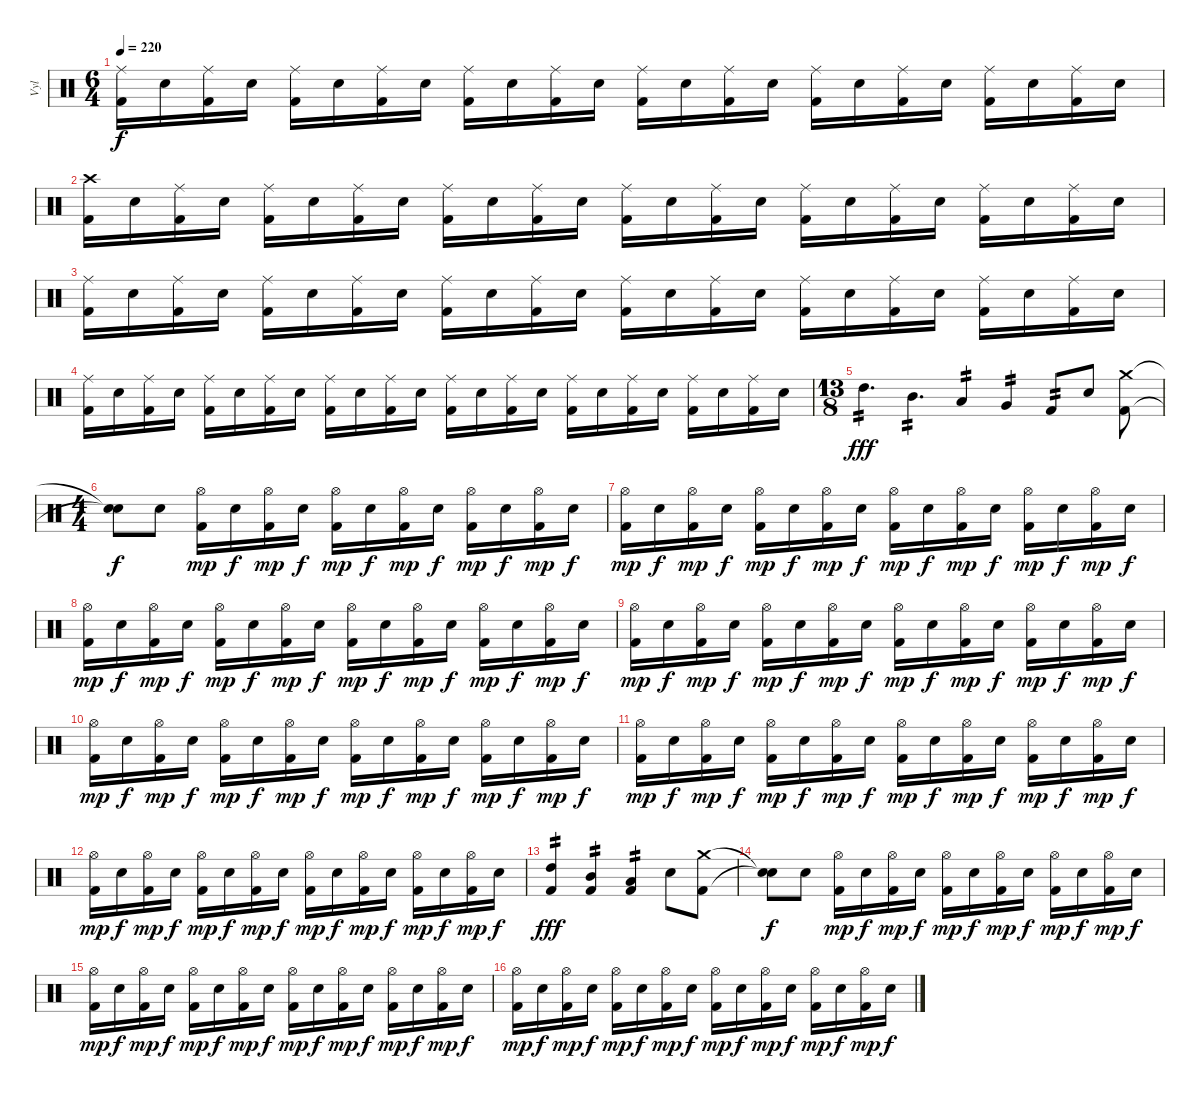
\track ("Vyl" "Vyl") {instrument percussion}
\staff {score}
\articulation defaults
\ts (6 4)
\tempo 220
\clef neutral
\ks c
("Ride (middle)" "Kick (hit) 2").16{dy f} "Snare (hit) 2".16 ("Ride (middle)" "Kick (hit) 2").16 "Snare (hit) 2".16 ("Ride (middle)" "Kick (hit) 2").16 "Snare (hit) 2".16 ("Ride (middle)" "Kick (hit) 2").16 "Snare (hit) 2".16 ("Ride (middle)" "Kick (hit) 2").16 "Snare (hit) 2".16 ("Ride (middle)" "Kick (hit) 2").16 "Snare (hit) 2".16 ("Ride (middle)" "Kick (hit) 2").16 "Snare (hit) 2".16 ("Ride (middle)" "Kick (hit) 2").16 "Snare (hit) 2".16 ("Ride (middle)" "Kick (hit) 2").16 "Snare (hit) 2".16 ("Ride (middle)" "Kick (hit) 2").16 "Snare (hit) 2".16 ("Ride (middle)" "Kick (hit) 2").16 "Snare (hit) 2".16 ("Ride (middle)" "Kick (hit) 2").16 "Snare (hit) 2".16 |
("Crash high (hit)" "Kick (hit) 2").16 "Snare (hit) 2".16 ("Ride (middle)" "Kick (hit) 2").16 "Snare (hit) 2".16 ("Ride (middle)" "Kick (hit) 2").16 "Snare (hit) 2".16 ("Ride (middle)" "Kick (hit) 2").16 "Snare (hit) 2".16 ("Ride (middle)" "Kick (hit) 2").16 "Snare (hit) 2".16 ("Ride (middle)" "Kick (hit) 2").16 "Snare (hit) 2".16 ("Ride (middle)" "Kick (hit) 2").16 "Snare (hit) 2".16 ("Ride (middle)" "Kick (hit) 2").16 "Snare (hit) 2".16 ("Ride (middle)" "Kick (hit) 2").16 "Snare (hit) 2".16 ("Ride (middle)" "Kick (hit) 2").16 "Snare (hit) 2".16 ("Ride (middle)" "Kick (hit) 2").16 "Snare (hit) 2".16 ("Ride (middle)" "Kick (hit) 2").16 "Snare (hit) 2".16 |
("Ride (middle)" "Kick (hit) 2").16 "Snare (hit) 2".16 ("Ride (middle)" "Kick (hit) 2").16 "Snare (hit) 2".16 ("Ride (middle)" "Kick (hit) 2").16 "Snare (hit) 2".16 ("Ride (middle)" "Kick (hit) 2").16 "Snare (hit) 2".16 ("Ride (middle)" "Kick (hit) 2").16 "Snare (hit) 2".16 ("Ride (middle)" "Kick (hit) 2").16 "Snare (hit) 2".16 ("Ride (middle)" "Kick (hit) 2").16 "Snare (hit) 2".16 ("Ride (middle)" "Kick (hit) 2").16 "Snare (hit) 2".16 ("Ride (middle)" "Kick (hit) 2").16 "Snare (hit) 2".16 ("Ride (middle)" "Kick (hit) 2").16 "Snare (hit) 2".16 ("Ride (middle)" "Kick (hit) 2").16 "Snare (hit) 2".16 ("Ride (middle)" "Kick (hit) 2").16 "Snare (hit) 2".16 |
("Ride (middle)" "Kick (hit) 2").16 "Snare (hit) 2".16 ("Ride (middle)" "Kick (hit) 2").16 "Snare (hit) 2".16 ("Ride (middle)" "Kick (hit) 2").16 "Snare (hit) 2".16 ("Ride (middle)" "Kick (hit) 2").16 "Snare (hit) 2".16 ("Ride (middle)" "Kick (hit) 2").16 "Snare (hit) 2".16 ("Ride (middle)" "Kick (hit) 2").16 "Snare (hit) 2".16 ("Ride (middle)" "Kick (hit) 2").16 "Snare (hit) 2".16 ("Ride (middle)" "Kick (hit) 2").16 "Snare (hit) 2".16 ("Ride (middle)" "Kick (hit) 2").16 "Snare (hit) 2".16 ("Ride (middle)" "Kick (hit) 2").16 "Snare (hit) 2".16 ("Ride (middle)" "Kick (hit) 2").16 "Snare (hit) 2".16 ("Ride (middle)" "Kick (hit) 2").16 "Snare (hit) 2".16 |
\ts (13 8)
"High Tom (hit)".4{d tp 2 dy fff} "Mid Tom (hit)".4{d tp 2} "Low Tom (hit)".4{tp 2} "Very Low Tom (hit)".4{tp 2} "Kick (hit) 2".8{tp 2} "Snare (hit) 2".8 ("Crash medium (hit)" "Kick (hit) 2").8 |
\ts (4 4)
("Snare (hit)"{t} "Snare (hit)"{t}).8{dy f} "Snare (hit) 2".8 ("Hi-Hat (open)" "Kick (hit) 2").16{dy mp} "Snare (hit) 2".16{dy f} ("Hi-Hat (open)" "Kick (hit) 2").16{dy mp} "Snare (hit) 2".16{dy f} ("Hi-Hat (open)" "Kick (hit) 2").16{dy mp} "Snare (hit) 2".16{dy f} ("Hi-Hat (open)" "Kick (hit) 2").16{dy mp} "Snare (hit) 2".16{dy f} ("Hi-Hat (open)" "Kick (hit) 2").16{dy mp} "Snare (hit) 2".16{dy f} ("Hi-Hat (open)" "Kick (hit) 2").16{dy mp} "Snare (hit) 2".16{dy f} |
("Hi-Hat (open)" "Kick (hit) 2").16{dy mp} "Snare (hit) 2".16{dy f} ("Hi-Hat (open)" "Kick (hit) 2").16{dy mp} "Snare (hit) 2".16{dy f} ("Hi-Hat (open)" "Kick (hit) 2").16{dy mp} "Snare (hit) 2".16{dy f} ("Hi-Hat (open)" "Kick (hit) 2").16{dy mp} "Snare (hit) 2".16{dy f} ("Hi-Hat (open)" "Kick (hit) 2").16{dy mp} "Snare (hit) 2".16{dy f} ("Hi-Hat (open)" "Kick (hit) 2").16{dy mp} "Snare (hit) 2".16{dy f} ("Hi-Hat (open)" "Kick (hit) 2").16{dy mp} "Snare (hit) 2".16{dy f} ("Hi-Hat (open)" "Kick (hit) 2").16{dy mp} "Snare (hit) 2".16{dy f} |
("Hi-Hat (open)" "Kick (hit) 2").16{dy mp} "Snare (hit) 2".16{dy f} ("Hi-Hat (open)" "Kick (hit) 2").16{dy mp} "Snare (hit) 2".16{dy f} ("Hi-Hat (open)" "Kick (hit) 2").16{dy mp} "Snare (hit) 2".16{dy f} ("Hi-Hat (open)" "Kick (hit) 2").16{dy mp} "Snare (hit) 2".16{dy f} ("Hi-Hat (open)" "Kick (hit) 2").16{dy mp} "Snare (hit) 2".16{dy f} ("Hi-Hat (open)" "Kick (hit) 2").16{dy mp} "Snare (hit) 2".16{dy f} ("Hi-Hat (open)" "Kick (hit) 2").16{dy mp} "Snare (hit) 2".16{dy f} ("Hi-Hat (open)" "Kick (hit) 2").16{dy mp} "Snare (hit) 2".16{dy f} |
("Hi-Hat (open)" "Kick (hit) 2").16{dy mp} "Snare (hit) 2".16{dy f} ("Hi-Hat (open)" "Kick (hit) 2").16{dy mp} "Snare (hit) 2".16{dy f} ("Hi-Hat (open)" "Kick (hit) 2").16{dy mp} "Snare (hit) 2".16{dy f} ("Hi-Hat (open)" "Kick (hit) 2").16{dy mp} "Snare (hit) 2".16{dy f} ("Hi-Hat (open)" "Kick (hit) 2").16{dy mp} "Snare (hit) 2".16{dy f} ("Hi-Hat (open)" "Kick (hit) 2").16{dy mp} "Snare (hit) 2".16{dy f} ("Hi-Hat (open)" "Kick (hit) 2").16{dy mp} "Snare (hit) 2".16{dy f} ("Hi-Hat (open)" "Kick (hit) 2").16{dy mp} "Snare (hit) 2".16{dy f} |
("Hi-Hat (open)" "Kick (hit) 2").16{dy mp} "Snare (hit) 2".16{dy f} ("Hi-Hat (open)" "Kick (hit) 2").16{dy mp} "Snare (hit) 2".16{dy f} ("Hi-Hat (open)" "Kick (hit) 2").16{dy mp} "Snare (hit) 2".16{dy f} ("Hi-Hat (open)" "Kick (hit) 2").16{dy mp} "Snare (hit) 2".16{dy f} ("Hi-Hat (open)" "Kick (hit) 2").16{dy mp} "Snare (hit) 2".16{dy f} ("Hi-Hat (open)" "Kick (hit) 2").16{dy mp} "Snare (hit) 2".16{dy f} ("Hi-Hat (open)" "Kick (hit) 2").16{dy mp} "Snare (hit) 2".16{dy f} ("Hi-Hat (open)" "Kick (hit) 2").16{dy mp} "Snare (hit) 2".16{dy f} |
("Hi-Hat (open)" "Kick (hit) 2").16{dy mp} "Snare (hit) 2".16{dy f} ("Hi-Hat (open)" "Kick (hit) 2").16{dy mp} "Snare (hit) 2".16{dy f} ("Hi-Hat (open)" "Kick (hit) 2").16{dy mp} "Snare (hit) 2".16{dy f} ("Hi-Hat (open)" "Kick (hit) 2").16{dy mp} "Snare (hit) 2".16{dy f} ("Hi-Hat (open)" "Kick (hit) 2").16{dy mp} "Snare (hit) 2".16{dy f} ("Hi-Hat (open)" "Kick (hit) 2").16{dy mp} "Snare (hit) 2".16{dy f} ("Hi-Hat (open)" "Kick (hit) 2").16{dy mp} "Snare (hit) 2".16{dy f} ("Hi-Hat (open)" "Kick (hit) 2").16{dy mp} "Snare (hit) 2".16{dy f} |
("Hi-Hat (open)" "Kick (hit) 2").16{dy mp} "Snare (hit) 2".16{dy f} ("Hi-Hat (open)" "Kick (hit) 2").16{dy mp} "Snare (hit) 2".16{dy f} ("Hi-Hat (open)" "Kick (hit) 2").16{dy mp} "Snare (hit) 2".16{dy f} ("Hi-Hat (open)" "Kick (hit) 2").16{dy mp} "Snare (hit) 2".16{dy f} ("Hi-Hat (open)" "Kick (hit) 2").16{dy mp} "Snare (hit) 2".16{dy f} ("Hi-Hat (open)" "Kick (hit) 2").16{dy mp} "Snare (hit) 2".16{dy f} ("Hi-Hat (open)" "Kick (hit) 2").16{dy mp} "Snare (hit) 2".16{dy f} ("Hi-Hat (open)" "Kick (hit) 2").16{dy mp} "Snare (hit) 2".16{dy f} |
("Kick (hit) 2" "High Tom (hit)").4{tp 2 dy fff} ("Kick (hit) 2" "Mid Tom (hit)").4{tp 2} ("Kick (hit) 2" "Low Tom (hit)").4{tp 2} "Snare (hit) 2".8 ("Crash medium (hit)" "Kick (hit) 2").8 |
("Snare (hit)"{t} "Snare (hit)"{t}).8{dy f} "Snare (hit) 2".8 ("Hi-Hat (open)" "Kick (hit) 2").16{dy mp} "Snare (hit) 2".16{dy f} ("Hi-Hat (open)" "Kick (hit) 2").16{dy mp} "Snare (hit) 2".16{dy f} ("Hi-Hat (open)" "Kick (hit) 2").16{dy mp} "Snare (hit) 2".16{dy f} ("Hi-Hat (open)" "Kick (hit) 2").16{dy mp} "Snare (hit) 2".16{dy f} ("Hi-Hat (open)" "Kick (hit) 2").16{dy mp} "Snare (hit) 2".16{dy f} ("Hi-Hat (open)" "Kick (hit) 2").16{dy mp} "Snare (hit) 2".16{dy f} |
("Hi-Hat (open)" "Kick (hit) 2").16{dy mp} "Snare (hit) 2".16{dy f} ("Hi-Hat (open)" "Kick (hit) 2").16{dy mp} "Snare (hit) 2".16{dy f} ("Hi-Hat (open)" "Kick (hit) 2").16{dy mp} "Snare (hit) 2".16{dy f} ("Hi-Hat (open)" "Kick (hit) 2").16{dy mp} "Snare (hit) 2".16{dy f} ("Hi-Hat (open)" "Kick (hit) 2").16{dy mp} "Snare (hit) 2".16{dy f} ("Hi-Hat (open)" "Kick (hit) 2").16{dy mp} "Snare (hit) 2".16{dy f} ("Hi-Hat (open)" "Kick (hit) 2").16{dy mp} "Snare (hit) 2".16{dy f} ("Hi-Hat (open)" "Kick (hit) 2").16{dy mp} "Snare (hit) 2".16{dy f} |
("Hi-Hat (open)" "Kick (hit) 2").16{dy mp} "Snare (hit) 2".16{dy f} ("Hi-Hat (open)" "Kick (hit) 2").16{dy mp} "Snare (hit) 2".16{dy f} ("Hi-Hat (open)" "Kick (hit) 2").16{dy mp} "Snare (hit) 2".16{dy f} ("Hi-Hat (open)" "Kick (hit) 2").16{dy mp} "Snare (hit) 2".16{dy f} ("Hi-Hat (open)" "Kick (hit) 2").16{dy mp} "Snare (hit) 2".16{dy f} ("Hi-Hat (open)" "Kick (hit) 2").16{dy mp} "Snare (hit) 2".16{dy f} ("Hi-Hat (open)" "Kick (hit) 2").16{dy mp} "Snare (hit) 2".16{dy f} ("Hi-Hat (open)" "Kick (hit) 2").16{dy mp} "Snare (hit) 2".16{dy f}
